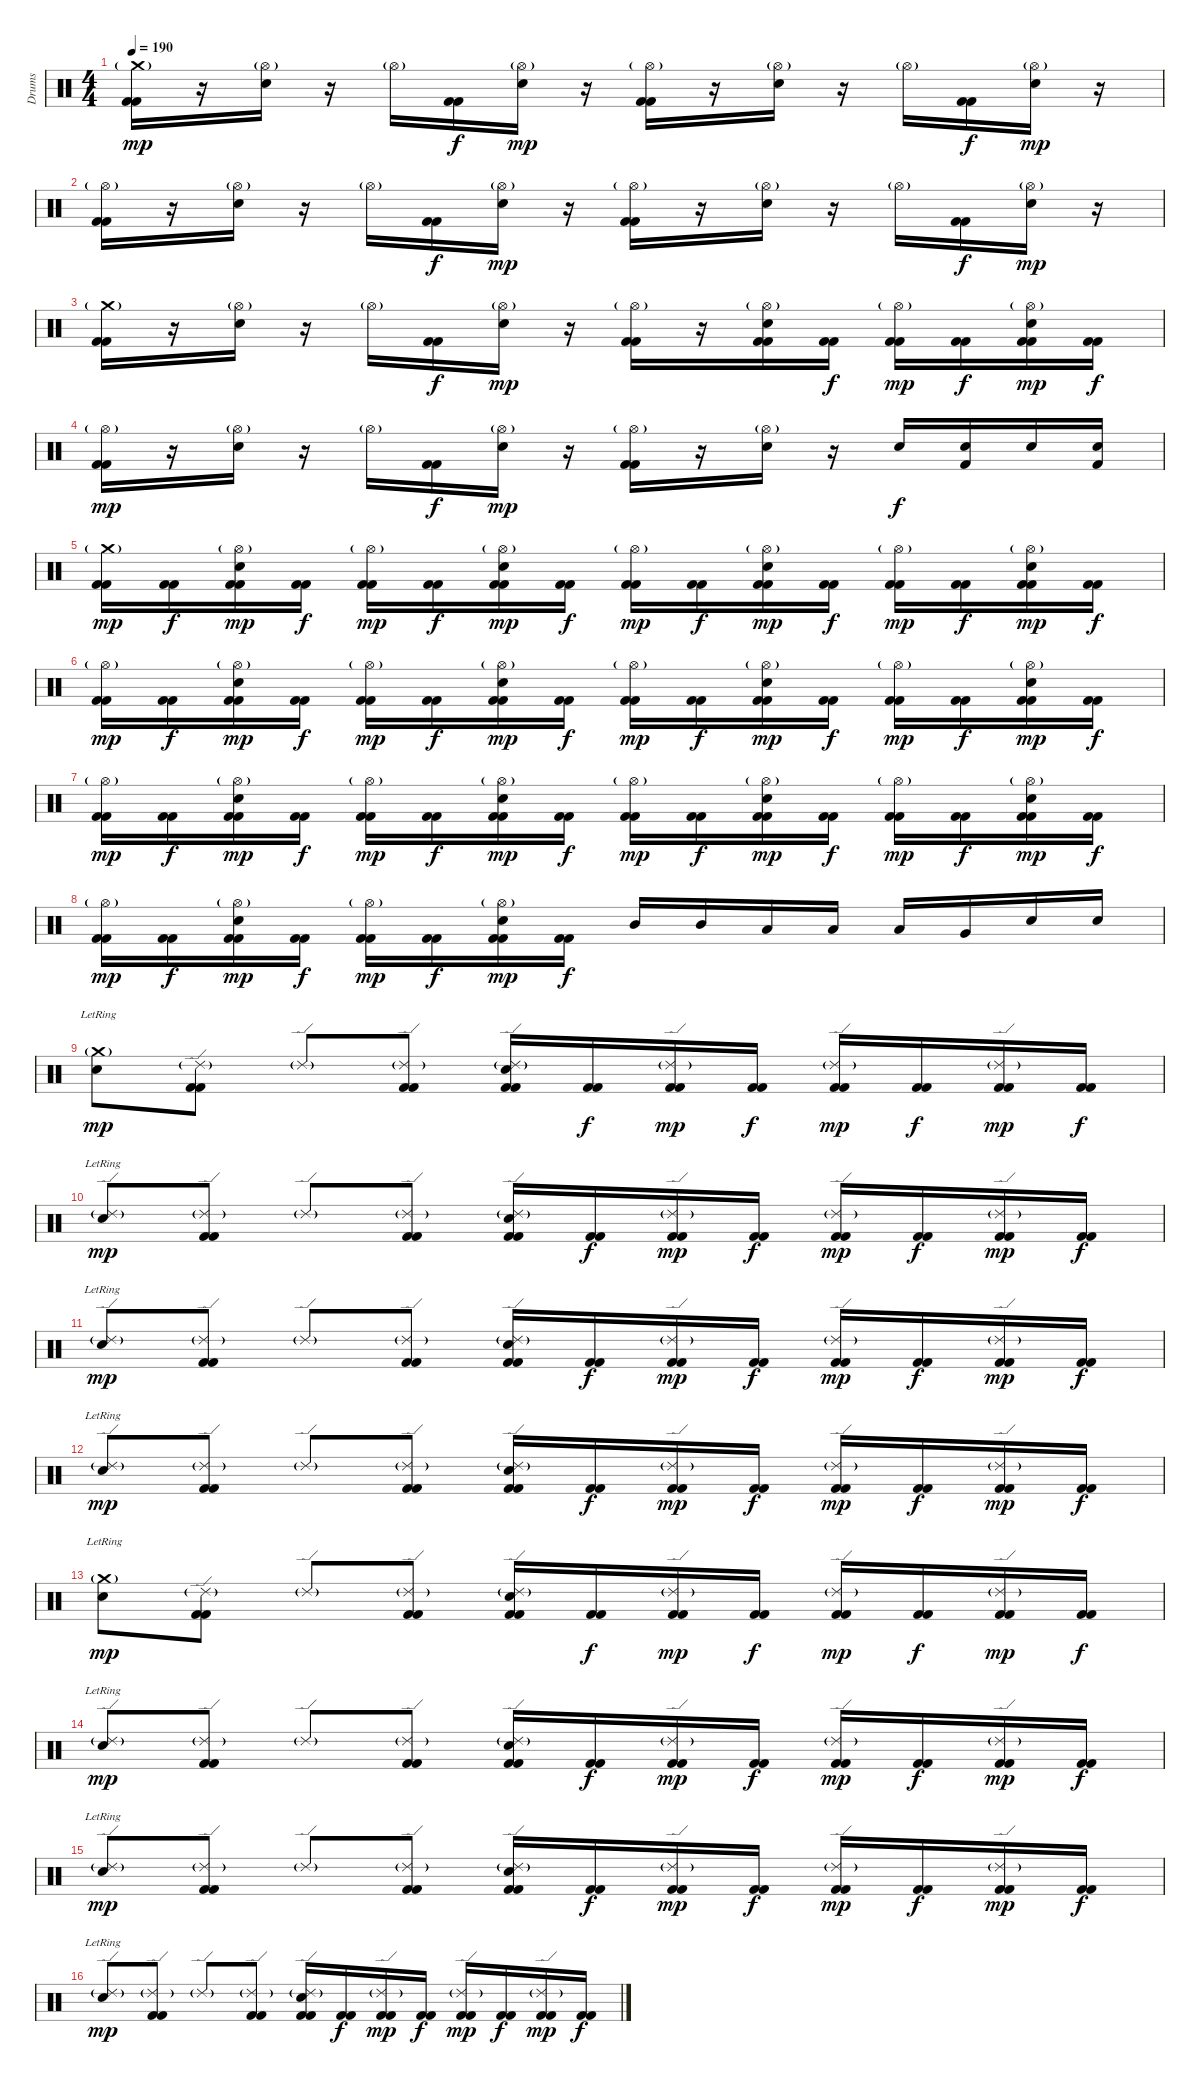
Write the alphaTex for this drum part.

\track ("Drums" "Drums") {instrument percussion}
\staff {score}
\articulation defaults
\ts (4 4)
\tempo 190
\clef neutral
\ks c
("Crash medium (hit)"{g} "Kick (hit) 2" "Kick (hit) 2").16{dy mp} r.16 ("Hi-Hat (open)"{g} "Electric Snare (hit)").16 r.16 "Hi-Hat (open)"{g}.16 ("Kick (hit) 2" "Kick (hit) 2").16{dy f} ("Hi-Hat (open)"{g} "Electric Snare (hit)").16{dy mp} r.16 ("Hi-Hat (open)"{g} "Kick (hit) 2" "Kick (hit) 2").16 r.16 ("Hi-Hat (open)"{g} "Electric Snare (hit)").16 r.16 "Hi-Hat (open)"{g}.16 ("Kick (hit) 2" "Kick (hit) 2").16{dy f} ("Hi-Hat (open)"{g} "Electric Snare (hit)").16{dy mp} r.16 |
("Hi-Hat (open)"{g} "Kick (hit) 2" "Kick (hit) 2").16 r.16 ("Hi-Hat (open)"{g} "Electric Snare (hit)").16 r.16 "Hi-Hat (open)"{g}.16 ("Kick (hit) 2" "Kick (hit) 2").16{dy f} ("Hi-Hat (open)"{g} "Electric Snare (hit)").16{dy mp} r.16 ("Hi-Hat (open)"{g} "Kick (hit) 2" "Kick (hit) 2").16 r.16 ("Hi-Hat (open)"{g} "Electric Snare (hit)").16 r.16 "Hi-Hat (open)"{g}.16 ("Kick (hit) 2" "Kick (hit) 2").16{dy f} ("Hi-Hat (open)"{g} "Electric Snare (hit)").16{dy mp} r.16 |
("Crash medium (hit)"{g} "Kick (hit) 2" "Kick (hit) 2").16 r.16 ("Hi-Hat (open)"{g} "Electric Snare (hit)").16 r.16 "Hi-Hat (open)"{g}.16 ("Kick (hit) 2" "Kick (hit) 2").16{dy f} ("Hi-Hat (open)"{g} "Electric Snare (hit)").16{dy mp} r.16 ("Hi-Hat (open)"{g} "Kick (hit) 2" "Kick (hit) 2").16 r.16 ("Hi-Hat (open)"{g} "Kick (hit) 2" "Electric Snare (hit)" "Kick (hit) 2").16 ("Kick (hit) 2" "Kick (hit) 2").16{dy f} ("Hi-Hat (open)"{g} "Kick (hit) 2" "Kick (hit) 2").16{dy mp} ("Kick (hit) 2" "Kick (hit) 2").16{dy f} ("Hi-Hat (open)"{g} "Kick (hit) 2" "Electric Snare (hit)" "Kick (hit) 2").16{dy mp} ("Kick (hit) 2" "Kick (hit) 2").16{dy f} |
("Hi-Hat (open)"{g} "Kick (hit) 2" "Kick (hit) 2").16{dy mp} r.16 ("Hi-Hat (open)"{g} "Electric Snare (hit)").16 r.16 "Hi-Hat (open)"{g}.16 ("Kick (hit) 2" "Kick (hit) 2").16{dy f} ("Hi-Hat (open)"{g} "Electric Snare (hit)").16{dy mp} r.16 ("Hi-Hat (open)"{g} "Kick (hit) 2" "Kick (hit) 2").16 r.16 ("Hi-Hat (open)"{g} "Electric Snare (hit)").16 r.16 "Electric Snare (hit)".16{dy f} ("Electric Snare (hit)" "Kick (hit) 2").16 "Electric Snare (hit)".16 ("Electric Snare (hit)" "Kick (hit) 2").16 |
("Crash medium (hit)"{g} "Kick (hit) 2" "Kick (hit) 2").16{dy mp} ("Kick (hit) 2" "Kick (hit) 2").16{dy f} ("Hi-Hat (open)"{g} "Kick (hit) 2" "Electric Snare (hit)" "Kick (hit) 2").16{dy mp} ("Kick (hit) 2" "Kick (hit) 2").16{dy f} ("Hi-Hat (open)"{g} "Kick (hit) 2" "Kick (hit) 2").16{dy mp} ("Kick (hit) 2" "Kick (hit) 2").16{dy f} ("Hi-Hat (open)"{g} "Kick (hit) 2" "Electric Snare (hit)" "Kick (hit) 2").16{dy mp} ("Kick (hit) 2" "Kick (hit) 2").16{dy f} ("Hi-Hat (open)"{g} "Kick (hit) 2" "Kick (hit) 2").16{dy mp} ("Kick (hit) 2" "Kick (hit) 2").16{dy f} ("Hi-Hat (open)"{g} "Kick (hit) 2" "Electric Snare (hit)" "Kick (hit) 2").16{dy mp} ("Kick (hit) 2" "Kick (hit) 2").16{dy f} ("Hi-Hat (open)"{g} "Kick (hit) 2" "Kick (hit) 2").16{dy mp} ("Kick (hit) 2" "Kick (hit) 2").16{dy f} ("Hi-Hat (open)"{g} "Kick (hit) 2" "Electric Snare (hit)" "Kick (hit) 2").16{dy mp} ("Kick (hit) 2" "Kick (hit) 2").16{dy f} |
("Hi-Hat (open)"{g} "Kick (hit) 2" "Kick (hit) 2").16{dy mp} ("Kick (hit) 2" "Kick (hit) 2").16{dy f} ("Hi-Hat (open)"{g} "Kick (hit) 2" "Electric Snare (hit)" "Kick (hit) 2").16{dy mp} ("Kick (hit) 2" "Kick (hit) 2").16{dy f} ("Hi-Hat (open)"{g} "Kick (hit) 2" "Kick (hit) 2").16{dy mp} ("Kick (hit) 2" "Kick (hit) 2").16{dy f} ("Hi-Hat (open)"{g} "Kick (hit) 2" "Electric Snare (hit)" "Kick (hit) 2").16{dy mp} ("Kick (hit) 2" "Kick (hit) 2").16{dy f} ("Hi-Hat (open)"{g} "Kick (hit) 2" "Kick (hit) 2").16{dy mp} ("Kick (hit) 2" "Kick (hit) 2").16{dy f} ("Hi-Hat (open)"{g} "Kick (hit) 2" "Electric Snare (hit)" "Kick (hit) 2").16{dy mp} ("Kick (hit) 2" "Kick (hit) 2").16{dy f} ("Hi-Hat (open)"{g} "Kick (hit) 2" "Kick (hit) 2").16{dy mp} ("Kick (hit) 2" "Kick (hit) 2").16{dy f} ("Hi-Hat (open)"{g} "Kick (hit) 2" "Electric Snare (hit)" "Kick (hit) 2").16{dy mp} ("Kick (hit) 2" "Kick (hit) 2").16{dy f} |
("Hi-Hat (open)"{g} "Kick (hit) 2" "Kick (hit) 2").16{dy mp} ("Kick (hit) 2" "Kick (hit) 2").16{dy f} ("Hi-Hat (open)"{g} "Kick (hit) 2" "Electric Snare (hit)" "Kick (hit) 2").16{dy mp} ("Kick (hit) 2" "Kick (hit) 2").16{dy f} ("Hi-Hat (open)"{g} "Kick (hit) 2" "Kick (hit) 2").16{dy mp} ("Kick (hit) 2" "Kick (hit) 2").16{dy f} ("Hi-Hat (open)"{g} "Kick (hit) 2" "Electric Snare (hit)" "Kick (hit) 2").16{dy mp} ("Kick (hit) 2" "Kick (hit) 2").16{dy f} ("Hi-Hat (open)"{g} "Kick (hit) 2" "Kick (hit) 2").16{dy mp} ("Kick (hit) 2" "Kick (hit) 2").16{dy f} ("Hi-Hat (open)"{g} "Kick (hit) 2" "Electric Snare (hit)" "Kick (hit) 2").16{dy mp} ("Kick (hit) 2" "Kick (hit) 2").16{dy f} ("Hi-Hat (open)"{g} "Kick (hit) 2" "Kick (hit) 2").16{dy mp} ("Kick (hit) 2" "Kick (hit) 2").16{dy f} ("Hi-Hat (open)"{g} "Kick (hit) 2" "Electric Snare (hit)" "Kick (hit) 2").16{dy mp} ("Kick (hit) 2" "Kick (hit) 2").16{dy f} |
("Hi-Hat (open)"{g} "Kick (hit) 2" "Kick (hit) 2").16{dy mp} ("Kick (hit) 2" "Kick (hit) 2").16{dy f} ("Hi-Hat (open)"{g} "Kick (hit) 2" "Electric Snare (hit)" "Kick (hit) 2").16{dy mp} ("Kick (hit) 2" "Kick (hit) 2").16{dy f} ("Hi-Hat (open)"{g} "Kick (hit) 2" "Kick (hit) 2").16{dy mp} ("Kick (hit) 2" "Kick (hit) 2").16{dy f} ("Hi-Hat (open)"{g} "Kick (hit) 2" "Electric Snare (hit)" "Kick (hit) 2").16{dy mp} ("Kick (hit) 2" "Kick (hit) 2").16{dy f} "Mid Tom (hit)".16 "Mid Tom (hit)".16 "Low Floor Tom (hit)".16 "Low Tom (hit)".16 "Low Tom (hit)".16 "Very Low Tom (hit)".16 "Electric Snare (hit)".16 "Electric Snare (hit)".16 |
("Crash medium (hit)"{g lr} "Electric Snare (hit)").8{dy mp} ("Ride (edge) 2"{g} "Kick (hit) 2" "Kick (hit) 2").8 "Ride (edge) 2"{g}.8 ("Ride (edge) 2"{g} "Kick (hit) 2" "Kick (hit) 2").8 ("Ride (edge) 2"{g} "Kick (hit) 2" "Kick (hit) 2" "Electric Snare (hit)").16 ("Kick (hit) 2" "Kick (hit) 2").16{dy f} ("Ride (edge) 2"{g} "Kick (hit) 2" "Kick (hit) 2").16{dy mp} ("Kick (hit) 2" "Kick (hit) 2").16{dy f} ("Ride (edge) 2"{g} "Kick (hit) 2" "Kick (hit) 2").16{dy mp} ("Kick (hit) 2" "Kick (hit) 2").16{dy f} ("Ride (edge) 2"{g} "Kick (hit) 2" "Kick (hit) 2").16{dy mp} ("Kick (hit) 2" "Kick (hit) 2").16{dy f} |
("Ride (edge) 2"{g lr} "Electric Snare (hit)").8{dy mp} ("Ride (edge) 2"{g} "Kick (hit) 2" "Kick (hit) 2").8 "Ride (edge) 2"{g}.8 ("Ride (edge) 2"{g} "Kick (hit) 2" "Kick (hit) 2").8 ("Ride (edge) 2"{g} "Kick (hit) 2" "Kick (hit) 2" "Electric Snare (hit)").16 ("Kick (hit) 2" "Kick (hit) 2").16{dy f} ("Ride (edge) 2"{g} "Kick (hit) 2" "Kick (hit) 2").16{dy mp} ("Kick (hit) 2" "Kick (hit) 2").16{dy f} ("Ride (edge) 2"{g} "Kick (hit) 2" "Kick (hit) 2").16{dy mp} ("Kick (hit) 2" "Kick (hit) 2").16{dy f} ("Ride (edge) 2"{g} "Kick (hit) 2" "Kick (hit) 2").16{dy mp} ("Kick (hit) 2" "Kick (hit) 2").16{dy f} |
("Ride (edge) 2"{g lr} "Electric Snare (hit)").8{dy mp} ("Ride (edge) 2"{g} "Kick (hit) 2" "Kick (hit) 2").8 "Ride (edge) 2"{g}.8 ("Ride (edge) 2"{g} "Kick (hit) 2" "Kick (hit) 2").8 ("Ride (edge) 2"{g} "Kick (hit) 2" "Kick (hit) 2" "Electric Snare (hit)").16 ("Kick (hit) 2" "Kick (hit) 2").16{dy f} ("Ride (edge) 2"{g} "Kick (hit) 2" "Kick (hit) 2").16{dy mp} ("Kick (hit) 2" "Kick (hit) 2").16{dy f} ("Ride (edge) 2"{g} "Kick (hit) 2" "Kick (hit) 2").16{dy mp} ("Kick (hit) 2" "Kick (hit) 2").16{dy f} ("Ride (edge) 2"{g} "Kick (hit) 2" "Kick (hit) 2").16{dy mp} ("Kick (hit) 2" "Kick (hit) 2").16{dy f} |
("Ride (edge) 2"{g lr} "Electric Snare (hit)").8{dy mp} ("Ride (edge) 2"{g} "Kick (hit) 2" "Kick (hit) 2").8 "Ride (edge) 2"{g}.8 ("Ride (edge) 2"{g} "Kick (hit) 2" "Kick (hit) 2").8 ("Ride (edge) 2"{g} "Kick (hit) 2" "Kick (hit) 2" "Electric Snare (hit)").16 ("Kick (hit) 2" "Kick (hit) 2").16{dy f} ("Ride (edge) 2"{g} "Kick (hit) 2" "Kick (hit) 2").16{dy mp} ("Kick (hit) 2" "Kick (hit) 2").16{dy f} ("Ride (edge) 2"{g} "Kick (hit) 2" "Kick (hit) 2").16{dy mp} ("Kick (hit) 2" "Kick (hit) 2").16{dy f} ("Ride (edge) 2"{g} "Kick (hit) 2" "Kick (hit) 2").16{dy mp} ("Kick (hit) 2" "Kick (hit) 2").16{dy f} |
("Crash medium (hit)"{g lr} "Electric Snare (hit)").8{dy mp} ("Ride (edge) 2"{g} "Kick (hit) 2" "Kick (hit) 2").8 "Ride (edge) 2"{g}.8 ("Ride (edge) 2"{g} "Kick (hit) 2" "Kick (hit) 2").8 ("Ride (edge) 2"{g} "Kick (hit) 2" "Kick (hit) 2" "Electric Snare (hit)").16 ("Kick (hit) 2" "Kick (hit) 2").16{dy f} ("Ride (edge) 2"{g} "Kick (hit) 2" "Kick (hit) 2").16{dy mp} ("Kick (hit) 2" "Kick (hit) 2").16{dy f} ("Ride (edge) 2"{g} "Kick (hit) 2" "Kick (hit) 2").16{dy mp} ("Kick (hit) 2" "Kick (hit) 2").16{dy f} ("Ride (edge) 2"{g} "Kick (hit) 2" "Kick (hit) 2").16{dy mp} ("Kick (hit) 2" "Kick (hit) 2").16{dy f} |
("Ride (edge) 2"{g lr} "Electric Snare (hit)").8{dy mp} ("Ride (edge) 2"{g} "Kick (hit) 2" "Kick (hit) 2").8 "Ride (edge) 2"{g}.8 ("Ride (edge) 2"{g} "Kick (hit) 2" "Kick (hit) 2").8 ("Ride (edge) 2"{g} "Kick (hit) 2" "Kick (hit) 2" "Electric Snare (hit)").16 ("Kick (hit) 2" "Kick (hit) 2").16{dy f} ("Ride (edge) 2"{g} "Kick (hit) 2" "Kick (hit) 2").16{dy mp} ("Kick (hit) 2" "Kick (hit) 2").16{dy f} ("Ride (edge) 2"{g} "Kick (hit) 2" "Kick (hit) 2").16{dy mp} ("Kick (hit) 2" "Kick (hit) 2").16{dy f} ("Ride (edge) 2"{g} "Kick (hit) 2" "Kick (hit) 2").16{dy mp} ("Kick (hit) 2" "Kick (hit) 2").16{dy f} |
("Ride (edge) 2"{g lr} "Electric Snare (hit)").8{dy mp} ("Ride (edge) 2"{g} "Kick (hit) 2" "Kick (hit) 2").8 "Ride (edge) 2"{g}.8 ("Ride (edge) 2"{g} "Kick (hit) 2" "Kick (hit) 2").8 ("Ride (edge) 2"{g} "Kick (hit) 2" "Kick (hit) 2" "Electric Snare (hit)").16 ("Kick (hit) 2" "Kick (hit) 2").16{dy f} ("Ride (edge) 2"{g} "Kick (hit) 2" "Kick (hit) 2").16{dy mp} ("Kick (hit) 2" "Kick (hit) 2").16{dy f} ("Ride (edge) 2"{g} "Kick (hit) 2" "Kick (hit) 2").16{dy mp} ("Kick (hit) 2" "Kick (hit) 2").16{dy f} ("Ride (edge) 2"{g} "Kick (hit) 2" "Kick (hit) 2").16{dy mp} ("Kick (hit) 2" "Kick (hit) 2").16{dy f} |
("Ride (edge) 2"{g lr} "Electric Snare (hit)").8{dy mp} ("Ride (edge) 2"{g} "Kick (hit) 2" "Kick (hit) 2").8 "Ride (edge) 2"{g}.8 ("Ride (edge) 2"{g} "Kick (hit) 2" "Kick (hit) 2").8 ("Ride (edge) 2"{g} "Kick (hit) 2" "Kick (hit) 2" "Electric Snare (hit)").16 ("Kick (hit) 2" "Kick (hit) 2").16{dy f} ("Ride (edge) 2"{g} "Kick (hit) 2" "Kick (hit) 2").16{dy mp} ("Kick (hit) 2" "Kick (hit) 2").16{dy f} ("Ride (edge) 2"{g} "Kick (hit) 2" "Kick (hit) 2").16{dy mp} ("Kick (hit) 2" "Kick (hit) 2").16{dy f} ("Ride (edge) 2"{g} "Kick (hit) 2" "Kick (hit) 2").16{dy mp} ("Kick (hit) 2" "Kick (hit) 2").16{dy f}
